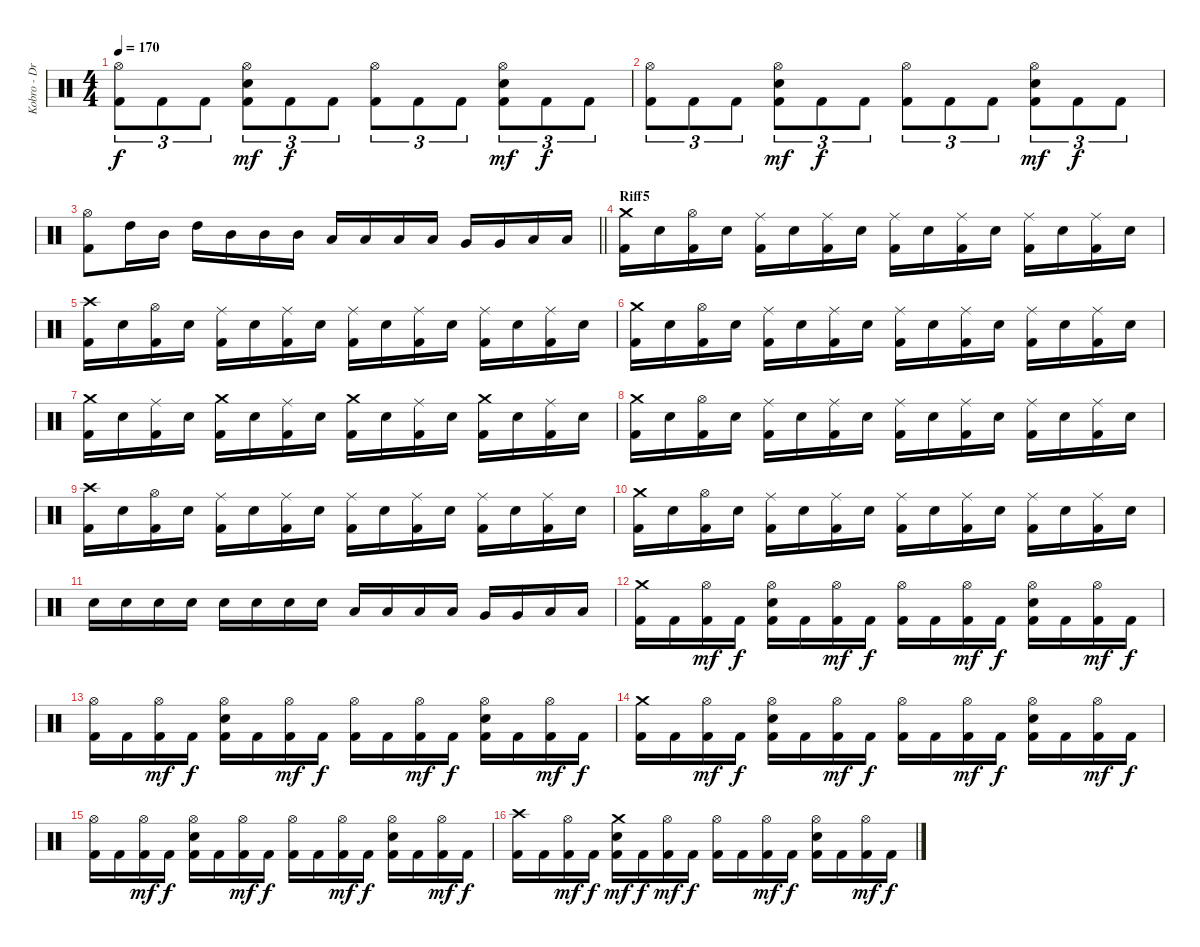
\track ("Kobro - Drums + Percussion" "Kobro - Dr") {instrument percussion}
\staff {score}
\articulation defaults
\ts (4 4)
\tempo 170
\clef neutral
\ks c
("Hi-Hat (open)" "Kick (hit) 2").8{tu (3 2) dy f} "Kick (hit) 2".8{tu (3 2)} "Kick (hit) 2".8{tu (3 2)} ("Hi-Hat (open)" "Electric Snare (hit)" "Kick (hit) 2").8{tu (3 2) dy mf} "Kick (hit) 2".8{tu (3 2) dy f} "Kick (hit) 2".8{tu (3 2)} ("Hi-Hat (open)" "Kick (hit) 2").8{tu (3 2)} "Kick (hit) 2".8{tu (3 2)} "Kick (hit) 2".8{tu (3 2)} ("Hi-Hat (open)" "Electric Snare (hit)" "Kick (hit) 2").8{tu (3 2) dy mf} "Kick (hit) 2".8{tu (3 2) dy f} "Kick (hit) 2".8{tu (3 2)} |
("Hi-Hat (open)" "Kick (hit) 2").8{tu (3 2)} "Kick (hit) 2".8{tu (3 2)} "Kick (hit) 2".8{tu (3 2)} ("Hi-Hat (open)" "Electric Snare (hit)" "Kick (hit) 2").8{tu (3 2) dy mf} "Kick (hit) 2".8{tu (3 2) dy f} "Kick (hit) 2".8{tu (3 2)} ("Hi-Hat (open)" "Kick (hit) 2").8{tu (3 2)} "Kick (hit) 2".8{tu (3 2)} "Kick (hit) 2".8{tu (3 2)} ("Hi-Hat (open)" "Electric Snare (hit)" "Kick (hit) 2").8{tu (3 2) dy mf} "Kick (hit) 2".8{tu (3 2) dy f} "Kick (hit) 2".8{tu (3 2)} |
\barLineRight lightlight
("Hi-Hat (open)" "Kick (hit) 2").8 "High Tom (hit)".16 "Mid Tom (hit)".16 "High Tom (hit)".16 "Mid Tom (hit)".16 "Mid Tom (hit)".16 "Mid Tom (hit)".16 "Low Tom (hit)".16 "Low Tom (hit)".16 "Low Tom (hit)".16 "Low Tom (hit)".16 "Very Low Tom (hit)".16 "Very Low Tom (hit)".16 "Low Floor Tom (hit)".16 "Low Floor Tom (hit)".16 |
\section ("" "Riff5")
("Crash medium (hit)" "Kick (hit) 2").16 "Electric Snare (hit)".16 ("Hi-Hat (open)" "Kick (hit) 2").16 "Electric Snare (hit)".16 ("Ride (middle)" "Kick (hit) 2").16 "Electric Snare (hit)".16 ("Ride (middle)" "Kick (hit) 2").16 "Electric Snare (hit)".16 ("Ride (middle)" "Kick (hit) 2").16 "Electric Snare (hit)".16 ("Ride (middle)" "Kick (hit) 2").16 "Electric Snare (hit)".16 ("Ride (middle)" "Kick (hit) 2").16 "Electric Snare (hit)".16 ("Ride (middle)" "Kick (hit) 2").16 "Electric Snare (hit)".16 |
("Crash high (hit)" "Kick (hit) 2").16 "Electric Snare (hit)".16 ("Hi-Hat (open)" "Kick (hit) 2").16 "Electric Snare (hit)".16 ("Ride (middle)" "Kick (hit) 2").16 "Electric Snare (hit)".16 ("Ride (middle)" "Kick (hit) 2").16 "Electric Snare (hit)".16 ("Ride (middle)" "Kick (hit) 2").16 "Electric Snare (hit)".16 ("Ride (middle)" "Kick (hit) 2").16 "Electric Snare (hit)".16 ("Ride (middle)" "Kick (hit) 2").16 "Electric Snare (hit)".16 ("Ride (middle)" "Kick (hit) 2").16 "Electric Snare (hit)".16 |
("Crash medium (hit)" "Kick (hit) 2").16 "Electric Snare (hit)".16 ("Hi-Hat (open)" "Kick (hit) 2").16 "Electric Snare (hit)".16 ("Ride (middle)" "Kick (hit) 2").16 "Electric Snare (hit)".16 ("Ride (middle)" "Kick (hit) 2").16 "Electric Snare (hit)".16 ("Ride (middle)" "Kick (hit) 2").16 "Electric Snare (hit)".16 ("Ride (middle)" "Kick (hit) 2").16 "Electric Snare (hit)".16 ("Ride (middle)" "Kick (hit) 2").16 "Electric Snare (hit)".16 ("Ride (middle)" "Kick (hit) 2").16 "Electric Snare (hit)".16 |
("Crash medium (hit)" "Kick (hit) 2").16 "Electric Snare (hit)".16 ("Ride (middle)" "Kick (hit) 2").16 "Electric Snare (hit)".16 ("Crash medium (hit)" "Kick (hit) 2").16 "Electric Snare (hit)".16 ("Ride (middle)" "Kick (hit) 2").16 "Electric Snare (hit)".16 ("Crash medium (hit)" "Kick (hit) 2").16 "Electric Snare (hit)".16 ("Ride (middle)" "Kick (hit) 2").16 "Electric Snare (hit)".16 ("Crash medium (hit)" "Kick (hit) 2").16 "Electric Snare (hit)".16 ("Ride (middle)" "Kick (hit) 2").16 "Electric Snare (hit)".16 |
("Crash medium (hit)" "Kick (hit) 2").16 "Electric Snare (hit)".16 ("Hi-Hat (open)" "Kick (hit) 2").16 "Electric Snare (hit)".16 ("Ride (middle)" "Kick (hit) 2").16 "Electric Snare (hit)".16 ("Ride (middle)" "Kick (hit) 2").16 "Electric Snare (hit)".16 ("Ride (middle)" "Kick (hit) 2").16 "Electric Snare (hit)".16 ("Ride (middle)" "Kick (hit) 2").16 "Electric Snare (hit)".16 ("Ride (middle)" "Kick (hit) 2").16 "Electric Snare (hit)".16 ("Ride (middle)" "Kick (hit) 2").16 "Electric Snare (hit)".16 |
("Crash high (hit)" "Kick (hit) 2").16 "Electric Snare (hit)".16 ("Hi-Hat (open)" "Kick (hit) 2").16 "Electric Snare (hit)".16 ("Ride (middle)" "Kick (hit) 2").16 "Electric Snare (hit)".16 ("Ride (middle)" "Kick (hit) 2").16 "Electric Snare (hit)".16 ("Ride (middle)" "Kick (hit) 2").16 "Electric Snare (hit)".16 ("Ride (middle)" "Kick (hit) 2").16 "Electric Snare (hit)".16 ("Ride (middle)" "Kick (hit) 2").16 "Electric Snare (hit)".16 ("Ride (middle)" "Kick (hit) 2").16 "Electric Snare (hit)".16 |
("Crash medium (hit)" "Kick (hit) 2").16 "Electric Snare (hit)".16 ("Hi-Hat (open)" "Kick (hit) 2").16 "Electric Snare (hit)".16 ("Ride (middle)" "Kick (hit) 2").16 "Electric Snare (hit)".16 ("Ride (middle)" "Kick (hit) 2").16 "Electric Snare (hit)".16 ("Ride (middle)" "Kick (hit) 2").16 "Electric Snare (hit)".16 ("Ride (middle)" "Kick (hit) 2").16 "Electric Snare (hit)".16 ("Ride (middle)" "Kick (hit) 2").16 "Electric Snare (hit)".16 ("Ride (middle)" "Kick (hit) 2").16 "Electric Snare (hit)".16 |
"Electric Snare (hit)".16 "Electric Snare (hit)".16 "Electric Snare (hit)".16 "Electric Snare (hit)".16 "Electric Snare (hit)".16 "Electric Snare (hit)".16 "Electric Snare (hit)".16 "Electric Snare (hit)".16 "Low Tom (hit)".16 "Low Tom (hit)".16 "Low Tom (hit)".16 "Low Tom (hit)".16 "Very Low Tom (hit)".16 "Very Low Tom (hit)".16 "Low Floor Tom (hit)".16 "Low Floor Tom (hit)".16 |
("Crash medium (hit)" "Kick (hit) 2").16 "Kick (hit) 2".16 ("Hi-Hat (open)" "Kick (hit) 2").16{dy mf} "Kick (hit) 2".16{dy f} ("Hi-Hat (open)" "Electric Snare (hit)" "Kick (hit) 2").16 "Kick (hit) 2".16 ("Hi-Hat (open)" "Kick (hit) 2").16{dy mf} "Kick (hit) 2".16{dy f} ("Hi-Hat (open)" "Kick (hit) 2").16 "Kick (hit) 2".16 ("Hi-Hat (open)" "Kick (hit) 2").16{dy mf} "Kick (hit) 2".16{dy f} ("Hi-Hat (open)" "Electric Snare (hit)" "Kick (hit) 2").16 "Kick (hit) 2".16 ("Hi-Hat (open)" "Kick (hit) 2").16{dy mf} "Kick (hit) 2".16{dy f} |
("Hi-Hat (open)" "Kick (hit) 2").16 "Kick (hit) 2".16 ("Hi-Hat (open)" "Kick (hit) 2").16{dy mf} "Kick (hit) 2".16{dy f} ("Hi-Hat (open)" "Electric Snare (hit)" "Kick (hit) 2").16 "Kick (hit) 2".16 ("Hi-Hat (open)" "Kick (hit) 2").16{dy mf} "Kick (hit) 2".16{dy f} ("Hi-Hat (open)" "Kick (hit) 2").16 "Kick (hit) 2".16 ("Hi-Hat (open)" "Kick (hit) 2").16{dy mf} "Kick (hit) 2".16{dy f} ("Hi-Hat (open)" "Electric Snare (hit)" "Kick (hit) 2").16 "Kick (hit) 2".16 ("Hi-Hat (open)" "Kick (hit) 2").16{dy mf} "Kick (hit) 2".16{dy f} |
("Crash medium (hit)" "Kick (hit) 2").16 "Kick (hit) 2".16 ("Hi-Hat (open)" "Kick (hit) 2").16{dy mf} "Kick (hit) 2".16{dy f} ("Hi-Hat (open)" "Electric Snare (hit)" "Kick (hit) 2").16 "Kick (hit) 2".16 ("Hi-Hat (open)" "Kick (hit) 2").16{dy mf} "Kick (hit) 2".16{dy f} ("Hi-Hat (open)" "Kick (hit) 2").16 "Kick (hit) 2".16 ("Hi-Hat (open)" "Kick (hit) 2").16{dy mf} "Kick (hit) 2".16{dy f} ("Hi-Hat (open)" "Electric Snare (hit)" "Kick (hit) 2").16 "Kick (hit) 2".16 ("Hi-Hat (open)" "Kick (hit) 2").16{dy mf} "Kick (hit) 2".16{dy f} |
("Hi-Hat (open)" "Kick (hit) 2").16 "Kick (hit) 2".16 ("Hi-Hat (open)" "Kick (hit) 2").16{dy mf} "Kick (hit) 2".16{dy f} ("Hi-Hat (open)" "Electric Snare (hit)" "Kick (hit) 2").16 "Kick (hit) 2".16 ("Hi-Hat (open)" "Kick (hit) 2").16{dy mf} "Kick (hit) 2".16{dy f} ("Hi-Hat (open)" "Kick (hit) 2").16 "Kick (hit) 2".16 ("Hi-Hat (open)" "Kick (hit) 2").16{dy mf} "Kick (hit) 2".16{dy f} ("Hi-Hat (open)" "Electric Snare (hit)" "Kick (hit) 2").16 "Kick (hit) 2".16 ("Hi-Hat (open)" "Kick (hit) 2").16{dy mf} "Kick (hit) 2".16{dy f} |
("Crash high (hit)" "Kick (hit) 2").16 "Kick (hit) 2".16 ("Hi-Hat (open)" "Kick (hit) 2").16{dy mf} "Kick (hit) 2".16{dy f} ("Crash medium (hit)" "Electric Snare (hit)" "Kick (hit) 2").16{dy mf} "Kick (hit) 2".16{dy f} ("Hi-Hat (open)" "Kick (hit) 2").16{dy mf} "Kick (hit) 2".16{dy f} ("Hi-Hat (open)" "Kick (hit) 2").16 "Kick (hit) 2".16 ("Hi-Hat (open)" "Kick (hit) 2").16{dy mf} "Kick (hit) 2".16{dy f} ("Hi-Hat (open)" "Electric Snare (hit)" "Kick (hit) 2").16 "Kick (hit) 2".16 ("Hi-Hat (open)" "Kick (hit) 2").16{dy mf} "Kick (hit) 2".16{dy f}
